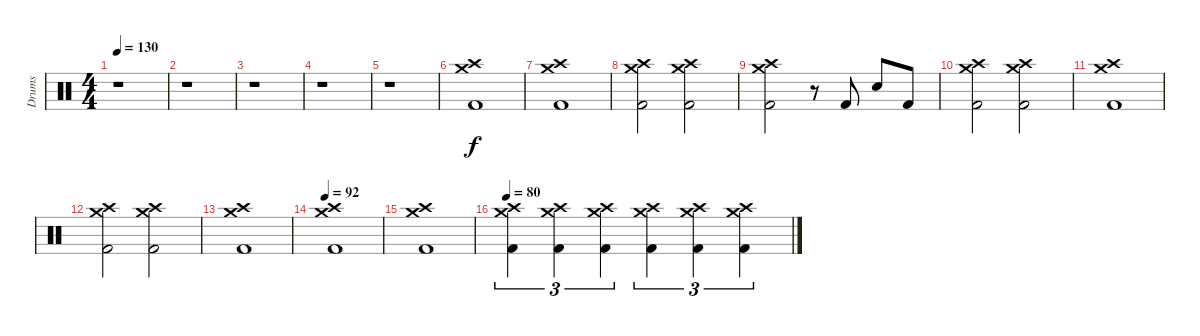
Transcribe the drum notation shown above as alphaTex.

\track ("Drums" "Drums") {instrument percussion}
\staff {score}
\articulation defaults
\ts (4 4)
\tempo 130
\tempo 90
\tempo 130
\clef neutral
\ks c
r.1{dy f} |
r.1 |
r.1 |
r.1 |
r.1 |
("Crash medium (hit)" "Crash high (hit)" "Kick (hit) 2").1 |
("Crash medium (hit)" "Crash high (hit)" "Kick (hit) 2").1 |
("Crash medium (hit)" "Crash high (hit)" "Kick (hit) 2").2 ("Crash medium (hit)" "Crash high (hit)" "Kick (hit) 2").2 |
("Crash medium (hit)" "Crash high (hit)" "Kick (hit) 2").2 r.8 "Kick (hit) 2".8 "Snare (hit) 2".8 "Kick (hit) 2".8 |
("Crash medium (hit)" "Crash high (hit)" "Kick (hit) 2").2 ("Crash medium (hit)" "Crash high (hit)" "Kick (hit) 2").2 |
("Crash medium (hit)" "Crash high (hit)" "Kick (hit) 2").1 |
("Crash medium (hit)" "Crash high (hit)" "Kick (hit) 2").2 ("Crash medium (hit)" "Crash high (hit)" "Kick (hit) 2").2 |
("Crash medium (hit)" "Crash high (hit)" "Kick (hit) 2").1 |
\tempo 92
("Crash medium (hit)" "Crash high (hit)" "Kick (hit) 2").1 |
("Crash medium (hit)" "Crash high (hit)" "Kick (hit) 2").1 |
\tempo 80
("Crash medium (hit)" "Crash high (hit)" "Kick (hit) 2").4{tu (3 2)} ("Crash medium (hit)" "Crash high (hit)" "Kick (hit) 2").4{tu (3 2)} ("Crash medium (hit)" "Crash high (hit)" "Kick (hit) 2").4{tu (3 2)} ("Crash medium (hit)" "Crash high (hit)" "Kick (hit) 2").4{tu (3 2)} ("Crash medium (hit)" "Crash high (hit)" "Kick (hit) 2").4{tu (3 2)} ("Crash medium (hit)" "Crash high (hit)" "Kick (hit) 2").4{tu (3 2)}
